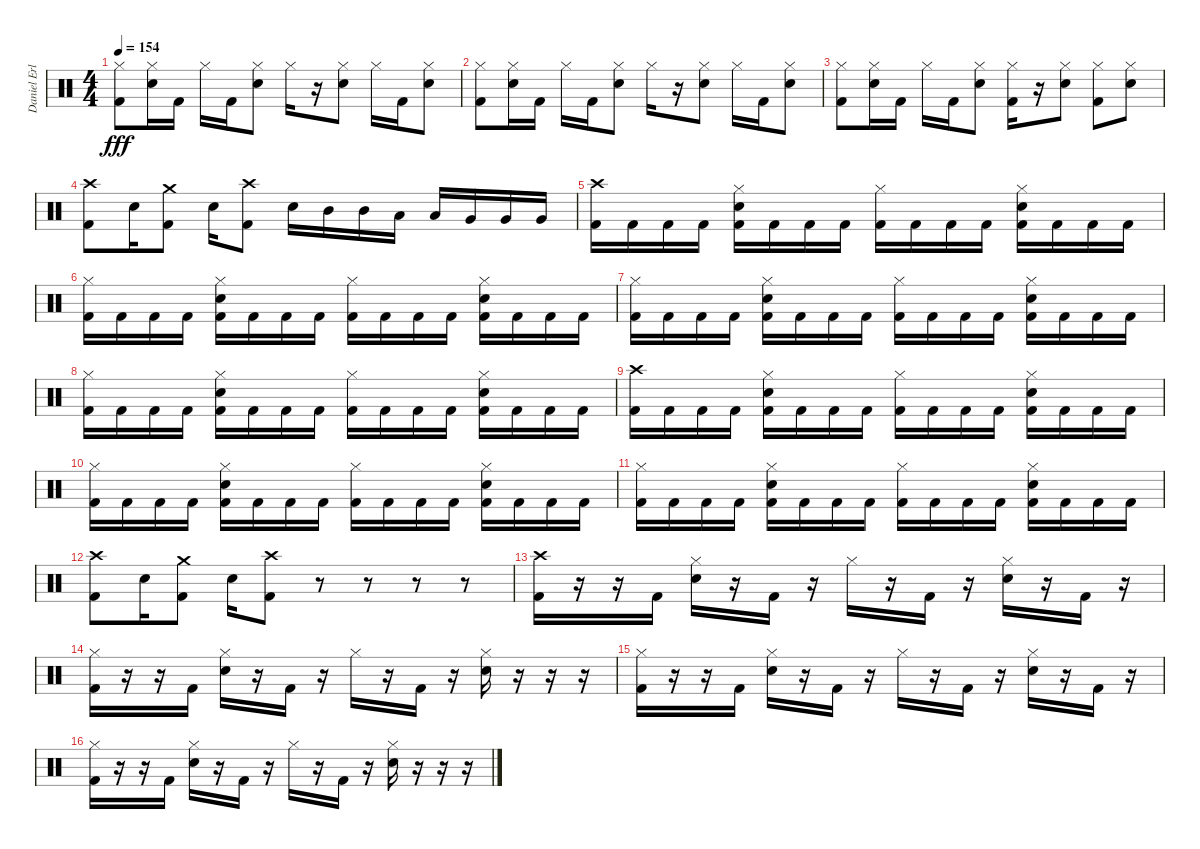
\track ("Daniel Erlandsson" "Daniel Erl") {instrument percussion}
\staff {score}
\articulation defaults
\ts (4 4)
\tempo 154
\clef neutral
\ks c
("Hi-Hat (closed)" "Kick (hit) 2").8{dy fff} ("Hi-Hat (closed)" "Electric Snare (hit)").16 "Kick (hit) 2".16 "Hi-Hat (closed)".16 "Kick (hit) 2".16 ("Hi-Hat (closed)" "Electric Snare (hit)").8 "Hi-Hat (closed)".16 r.16 ("Hi-Hat (closed)" "Electric Snare (hit)").8 "Hi-Hat (closed)".16 "Kick (hit) 2".16 ("Hi-Hat (closed)" "Electric Snare (hit)").8 |
("Hi-Hat (closed)" "Kick (hit) 2").8 ("Hi-Hat (closed)" "Electric Snare (hit)").16 "Kick (hit) 2".16 "Hi-Hat (closed)".16 "Kick (hit) 2".16 ("Hi-Hat (closed)" "Electric Snare (hit)").8 "Hi-Hat (closed)".16 r.16 ("Hi-Hat (closed)" "Electric Snare (hit)").8 "Hi-Hat (closed)".16 "Kick (hit) 2".16 ("Hi-Hat (closed)" "Electric Snare (hit)").8 |
("Hi-Hat (closed)" "Kick (hit) 2").8 ("Hi-Hat (closed)" "Electric Snare (hit)").16 "Kick (hit) 2".16 "Hi-Hat (closed)".16 "Kick (hit) 2".16 ("Hi-Hat (closed)" "Electric Snare (hit)").8 ("Hi-Hat (closed)" "Kick (hit) 2").16 r.16 ("Hi-Hat (closed)" "Electric Snare (hit)").8 ("Hi-Hat (closed)" "Kick (hit) 2").8 ("Hi-Hat (closed)" "Electric Snare (hit)").8 |
("Crash high (hit)" "Kick (hit) 2").8 "Electric Snare (hit)".16 ("Crash medium (hit)" "Kick (hit) 2").8 "Electric Snare (hit)".16 ("Crash high (hit)" "Kick (hit) 2").8 "Electric Snare (hit)".16 "Mid Tom (hit)".16 "Mid Tom (hit)".16 "Low Tom (hit)".16 "Low Tom (hit)".16 "Very Low Tom (hit)".16 "Very Low Tom (hit)".16 "Very Low Tom (hit)".16 |
("Crash high (hit)" "Kick (hit) 2").16 "Kick (hit) 2".16 "Kick (hit) 2".16 "Kick (hit) 2".16 ("Hi-Hat (closed)" "Electric Snare (hit)" "Kick (hit) 2").16 "Kick (hit) 2".16 "Kick (hit) 2".16 "Kick (hit) 2".16 ("Hi-Hat (closed)" "Kick (hit) 2").16 "Kick (hit) 2".16 "Kick (hit) 2".16 "Kick (hit) 2".16 ("Hi-Hat (closed)" "Electric Snare (hit)" "Kick (hit) 2").16 "Kick (hit) 2".16 "Kick (hit) 2".16 "Kick (hit) 2".16 |
("Hi-Hat (closed)" "Kick (hit) 2").16 "Kick (hit) 2".16 "Kick (hit) 2".16 "Kick (hit) 2".16 ("Hi-Hat (closed)" "Electric Snare (hit)" "Kick (hit) 2").16 "Kick (hit) 2".16 "Kick (hit) 2".16 "Kick (hit) 2".16 ("Hi-Hat (closed)" "Kick (hit) 2").16 "Kick (hit) 2".16 "Kick (hit) 2".16 "Kick (hit) 2".16 ("Hi-Hat (closed)" "Electric Snare (hit)" "Kick (hit) 2").16 "Kick (hit) 2".16 "Kick (hit) 2".16 "Kick (hit) 2".16 |
("Hi-Hat (closed)" "Kick (hit) 2").16 "Kick (hit) 2".16 "Kick (hit) 2".16 "Kick (hit) 2".16 ("Hi-Hat (closed)" "Electric Snare (hit)" "Kick (hit) 2").16 "Kick (hit) 2".16 "Kick (hit) 2".16 "Kick (hit) 2".16 ("Hi-Hat (closed)" "Kick (hit) 2").16 "Kick (hit) 2".16 "Kick (hit) 2".16 "Kick (hit) 2".16 ("Hi-Hat (closed)" "Electric Snare (hit)" "Kick (hit) 2").16 "Kick (hit) 2".16 "Kick (hit) 2".16 "Kick (hit) 2".16 |
("Hi-Hat (closed)" "Kick (hit) 2").16 "Kick (hit) 2".16 "Kick (hit) 2".16 "Kick (hit) 2".16 ("Hi-Hat (closed)" "Electric Snare (hit)" "Kick (hit) 2").16 "Kick (hit) 2".16 "Kick (hit) 2".16 "Kick (hit) 2".16 ("Hi-Hat (closed)" "Kick (hit) 2").16 "Kick (hit) 2".16 "Kick (hit) 2".16 "Kick (hit) 2".16 ("Hi-Hat (closed)" "Electric Snare (hit)" "Kick (hit) 2").16 "Kick (hit) 2".16 "Kick (hit) 2".16 "Kick (hit) 2".16 |
("Crash high (hit)" "Kick (hit) 2").16 "Kick (hit) 2".16 "Kick (hit) 2".16 "Kick (hit) 2".16 ("Hi-Hat (closed)" "Electric Snare (hit)" "Kick (hit) 2").16 "Kick (hit) 2".16 "Kick (hit) 2".16 "Kick (hit) 2".16 ("Hi-Hat (closed)" "Kick (hit) 2").16 "Kick (hit) 2".16 "Kick (hit) 2".16 "Kick (hit) 2".16 ("Hi-Hat (closed)" "Electric Snare (hit)" "Kick (hit) 2").16 "Kick (hit) 2".16 "Kick (hit) 2".16 "Kick (hit) 2".16 |
("Hi-Hat (closed)" "Kick (hit) 2").16 "Kick (hit) 2".16 "Kick (hit) 2".16 "Kick (hit) 2".16 ("Hi-Hat (closed)" "Electric Snare (hit)" "Kick (hit) 2").16 "Kick (hit) 2".16 "Kick (hit) 2".16 "Kick (hit) 2".16 ("Hi-Hat (closed)" "Kick (hit) 2").16 "Kick (hit) 2".16 "Kick (hit) 2".16 "Kick (hit) 2".16 ("Hi-Hat (closed)" "Electric Snare (hit)" "Kick (hit) 2").16 "Kick (hit) 2".16 "Kick (hit) 2".16 "Kick (hit) 2".16 |
("Hi-Hat (closed)" "Kick (hit) 2").16 "Kick (hit) 2".16 "Kick (hit) 2".16 "Kick (hit) 2".16 ("Hi-Hat (closed)" "Electric Snare (hit)" "Kick (hit) 2").16 "Kick (hit) 2".16 "Kick (hit) 2".16 "Kick (hit) 2".16 ("Hi-Hat (closed)" "Kick (hit) 2").16 "Kick (hit) 2".16 "Kick (hit) 2".16 "Kick (hit) 2".16 ("Hi-Hat (closed)" "Electric Snare (hit)" "Kick (hit) 2").16 "Kick (hit) 2".16 "Kick (hit) 2".16 "Kick (hit) 2".16 |
("Crash high (hit)" "Kick (hit) 2").8 "Electric Snare (hit)".16 ("Crash medium (hit)" "Kick (hit) 2").8 "Electric Snare (hit)".16 ("Crash high (hit)" "Kick (hit) 2").8 r.8 r.8 r.8{volume 0} r.8 |
("Crash high (hit)" "Kick (hit) 2").16{volume 16} r.16 r.16 "Kick (hit) 2".16 ("Hi-Hat (closed)" "Electric Snare (hit)").16 r.16 "Kick (hit) 2".16 r.16 "Hi-Hat (closed)".16 r.16 "Kick (hit) 2".16 r.16 ("Hi-Hat (closed)" "Electric Snare (hit)").16 r.16 "Kick (hit) 2".16 r.16 |
("Hi-Hat (closed)" "Kick (hit) 2").16 r.16 r.16 "Kick (hit) 2".16 ("Hi-Hat (closed)" "Electric Snare (hit)").16 r.16 "Kick (hit) 2".16 r.16 "Hi-Hat (closed)".16 r.16 "Kick (hit) 2".16 r.16 ("Hi-Hat (closed)" "Electric Snare (hit)").16 r.16 r.16 r.16 |
("Hi-Hat (closed)" "Kick (hit) 2").16 r.16 r.16 "Kick (hit) 2".16 ("Hi-Hat (closed)" "Electric Snare (hit)").16 r.16 "Kick (hit) 2".16 r.16 "Hi-Hat (closed)".16 r.16 "Kick (hit) 2".16 r.16 ("Hi-Hat (closed)" "Electric Snare (hit)").16 r.16 "Kick (hit) 2".16 r.16 |
("Hi-Hat (closed)" "Kick (hit) 2").16 r.16 r.16 "Kick (hit) 2".16 ("Hi-Hat (closed)" "Electric Snare (hit)").16 r.16 "Kick (hit) 2".16 r.16 "Hi-Hat (closed)".16 r.16 "Kick (hit) 2".16 r.16 ("Hi-Hat (closed)" "Electric Snare (hit)").16 r.16 r.16 r.16
